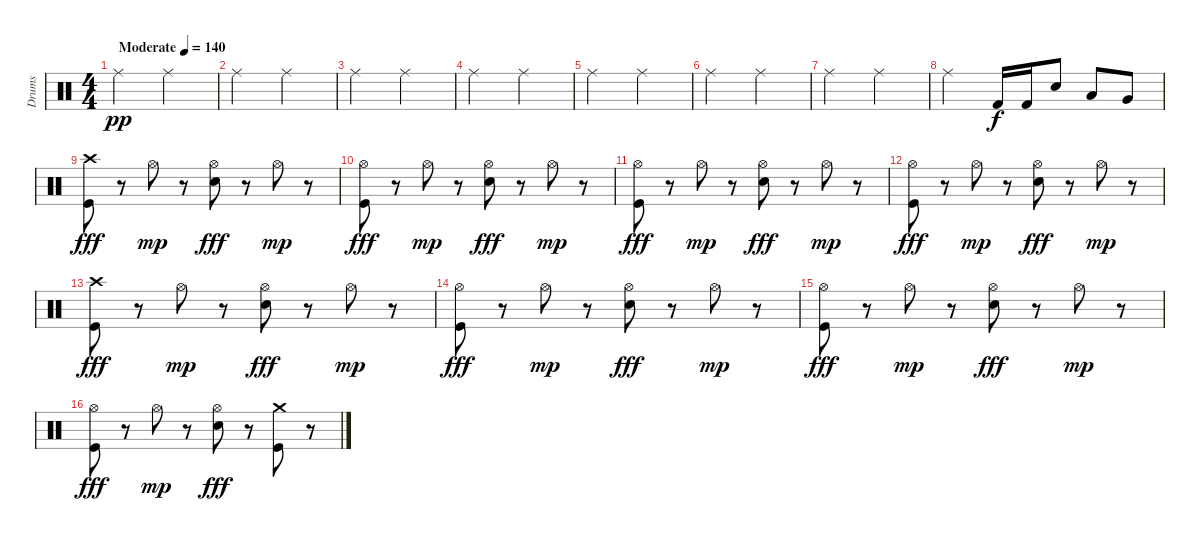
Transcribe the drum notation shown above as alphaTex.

\track ("Drums" "Drums") {instrument percussion}
\staff {score}
\articulation defaults
\ts (4 4)
\tempo (140 "Moderate")
\clef neutral
\ks c "Ride (middle)".2{dy pp} "Ride (middle)".2
|
"Ride (middle)".2 "Ride (middle)".2 |
"Ride (middle)".2 "Ride (middle)".2 |
"Ride (middle)".2 "Ride (middle)".2 |
"Ride (middle)".2 "Ride (middle)".2 |
"Ride (middle)".2 "Ride (middle)".2 |
"Ride (middle)".2 "Ride (middle)".2 |
"Ride (middle)".2 "Kick (hit) 2".16{dy f} "Kick (hit) 2".16 "Snare (hit) 2".8 "Low Tom (hit)".8 "Very Low Tom (hit)".8 |
("Crash high (hit)" "Kick (hit)").8{dy fff} r.8 "Hi-Hat (open)".8{dy mp} r.8 ("Hi-Hat (open)" "Snare (hit) 2").8{dy fff} r.8 "Hi-Hat (open)".8{dy mp} r.8 |
("Hi-Hat (open)" "Kick (hit)").8{dy fff} r.8 "Hi-Hat (open)".8{dy mp} r.8 ("Hi-Hat (open)" "Snare (hit) 2").8{dy fff} r.8 "Hi-Hat (open)".8{dy mp} r.8 |
("Hi-Hat (open)" "Kick (hit)").8{dy fff} r.8 "Hi-Hat (open)".8{dy mp} r.8 ("Hi-Hat (open)" "Snare (hit) 2").8{dy fff} r.8 "Hi-Hat (open)".8{dy mp} r.8 |
("Hi-Hat (open)" "Kick (hit)").8{dy fff} r.8 "Hi-Hat (open)".8{dy mp} r.8 ("Hi-Hat (open)" "Snare (hit) 2").8{dy fff} r.8 "Hi-Hat (open)".8{dy mp} r.8 |
("Crash high (hit)" "Kick (hit)").8{dy fff} r.8 "Hi-Hat (open)".8{dy mp} r.8 ("Hi-Hat (open)" "Snare (hit) 2").8{dy fff} r.8 "Hi-Hat (open)".8{dy mp} r.8 |
("Hi-Hat (open)" "Kick (hit)").8{dy fff} r.8 "Hi-Hat (open)".8{dy mp} r.8 ("Hi-Hat (open)" "Snare (hit) 2").8{dy fff} r.8 "Hi-Hat (open)".8{dy mp} r.8 |
("Hi-Hat (open)" "Kick (hit)").8{dy fff} r.8 "Hi-Hat (open)".8{dy mp} r.8 ("Hi-Hat (open)" "Snare (hit) 2").8{dy fff} r.8 "Hi-Hat (open)".8{dy mp} r.8 |
("Hi-Hat (open)" "Kick (hit)").8{dy fff} r.8 "Hi-Hat (open)".8{dy mp} r.8 ("Hi-Hat (open)" "Snare (hit) 2").8{dy fff} r.8 ("Crash medium (hit)" "Kick (hit)").8 r.8
